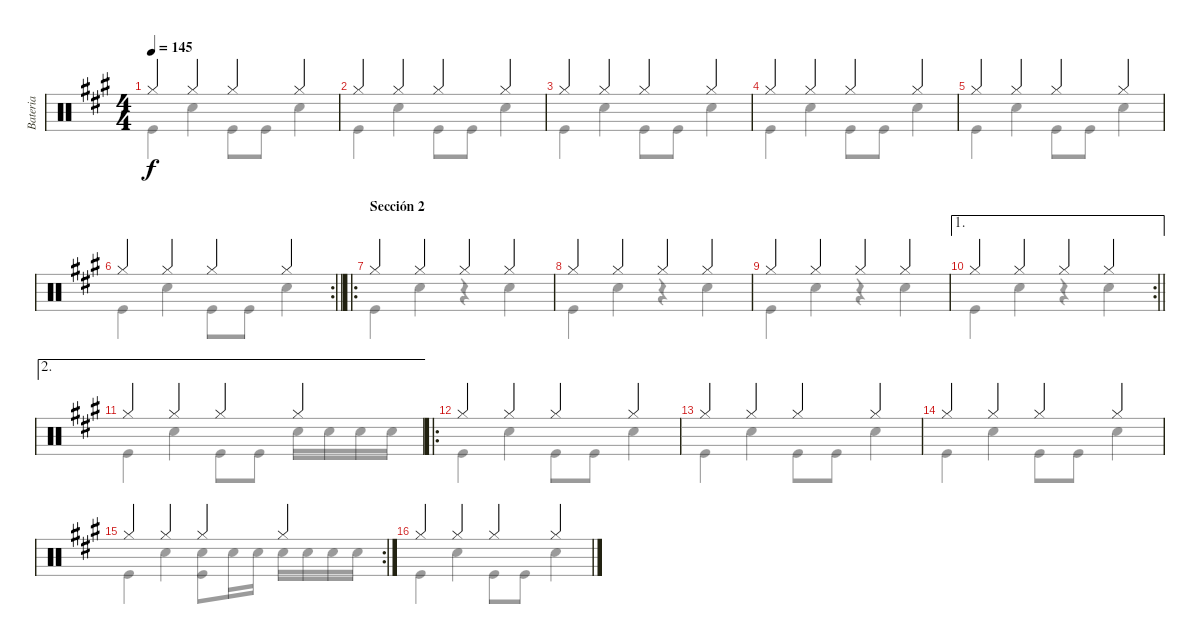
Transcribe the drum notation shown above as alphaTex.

\track ("Bateria" "Bateria") {instrument percussion}
\staff {score}
\articulation defaults
\voice
\ts (4 4)
\tempo 145
\clef neutral
\ks a "Hi-Hat (closed)".4{dy f} "Hi-Hat (closed)".4 "Hi-Hat (closed)".4 "Hi-Hat (closed)".4
|
"Hi-Hat (closed)".4 "Hi-Hat (closed)".4 "Hi-Hat (closed)".4 "Hi-Hat (closed)".4 |
"Hi-Hat (closed)".4 "Hi-Hat (closed)".4 "Hi-Hat (closed)".4 "Hi-Hat (closed)".4 |
"Hi-Hat (closed)".4 "Hi-Hat (closed)".4 "Hi-Hat (closed)".4 "Hi-Hat (closed)".4 |
"Hi-Hat (closed)".4 "Hi-Hat (closed)".4 "Hi-Hat (closed)".4 "Hi-Hat (closed)".4 |
\rc 2
\barLineRight lightlight "Hi-Hat (closed)".4 "Hi-Hat (closed)".4 "Hi-Hat (closed)".4 "Hi-Hat (closed)".4
|
\ro
\section ("" "Sección 2")
"Hi-Hat (closed)".4 "Hi-Hat (closed)".4 "Hi-Hat (closed)".4 "Hi-Hat (closed)".4 |
"Hi-Hat (closed)".4 "Hi-Hat (closed)".4 "Hi-Hat (closed)".4 "Hi-Hat (closed)".4 |
"Hi-Hat (closed)".4 "Hi-Hat (closed)".4 "Hi-Hat (closed)".4 "Hi-Hat (closed)".4 |
\ae 1
\rc 2
\barLineRight lightlight "Hi-Hat (closed)".4 "Hi-Hat (closed)".4 "Hi-Hat (closed)".4 "Hi-Hat (closed)".4
|
\ae 2 "Hi-Hat (closed)".4 "Hi-Hat (closed)".4 "Hi-Hat (closed)".4 "Hi-Hat (closed)".4
|
\ro "Hi-Hat (closed)".4 "Hi-Hat (closed)".4 "Hi-Hat (closed)".4 "Hi-Hat (closed)".4
|
"Hi-Hat (closed)".4 "Hi-Hat (closed)".4 "Hi-Hat (closed)".4 "Hi-Hat (closed)".4 |
"Hi-Hat (closed)".4 "Hi-Hat (closed)".4 "Hi-Hat (closed)".4 "Hi-Hat (closed)".4 |
\rc 2 "Hi-Hat (closed)".4 "Hi-Hat (closed)".4 "Hi-Hat (closed)".4 "Hi-Hat (closed)".4
|
"Hi-Hat (closed)".4 "Hi-Hat (closed)".4 "Hi-Hat (closed)".4 "Hi-Hat (closed)".4
\voice
\clef neutral
\ottava regular
\simile none
\ks a "Kick (hit)".4{dy f} "Snare (hit) 2".4 "Kick (hit)".8 "Kick (hit)".8 "Snare (hit) 2".4
|
"Kick (hit)".4 "Snare (hit) 2".4 "Kick (hit)".8 "Kick (hit)".8 "Snare (hit) 2".4 |
"Kick (hit)".4 "Snare (hit) 2".4 "Kick (hit)".8 "Kick (hit)".8 "Snare (hit) 2".4 |
"Kick (hit)".4 "Snare (hit) 2".4 "Kick (hit)".8 "Kick (hit)".8 "Snare (hit) 2".4 |
"Kick (hit)".4 "Snare (hit) 2".4 "Kick (hit)".8 "Kick (hit)".8 "Snare (hit) 2".4 |
\barLineRight lightlight "Kick (hit)".4 "Snare (hit) 2".4 "Kick (hit)".8 "Kick (hit)".8 "Snare (hit) 2".4
|
"Kick (hit)".4 "Snare (hit) 2".4 r.4 "Snare (hit) 2".4 |
"Kick (hit)".4 "Snare (hit) 2".4 r.4 "Snare (hit) 2".4 |
"Kick (hit)".4 "Snare (hit) 2".4 r.4 "Snare (hit) 2".4 |
\barLineRight lightlight "Kick (hit)".4 "Snare (hit) 2".4
r.4 "Snare (hit) 2".4 |
"Kick (hit)".4 "Snare (hit) 2".4 "Kick (hit)".8 "Kick (hit)".8 "Snare (hit) 2".16 "Snare (hit) 2".16 "Snare (hit) 2".16 "Snare (hit) 2".16 |
"Kick (hit)".4 "Snare (hit) 2".4 "Kick (hit)".8 "Kick (hit)".8 "Snare (hit) 2".4 |
"Kick (hit)".4 "Snare (hit) 2".4 "Kick (hit)".8 "Kick (hit)".8 "Snare (hit) 2".4 |
"Kick (hit)".4 "Snare (hit) 2".4 "Kick (hit)".8 "Kick (hit)".8 "Snare (hit) 2".4 |
"Kick (hit)".4 "Snare (hit) 2".4 ("Snare (hit) 2" "Kick (hit)").8 "Snare (hit) 2".16 "Snare (hit) 2".16 "Snare (hit) 2".16 "Snare (hit) 2".16 "Snare (hit) 2".16 "Snare (hit) 2".16 |
"Kick (hit)".4 "Snare (hit) 2".4 "Kick (hit)".8 "Kick (hit)".8 "Snare (hit) 2".4
